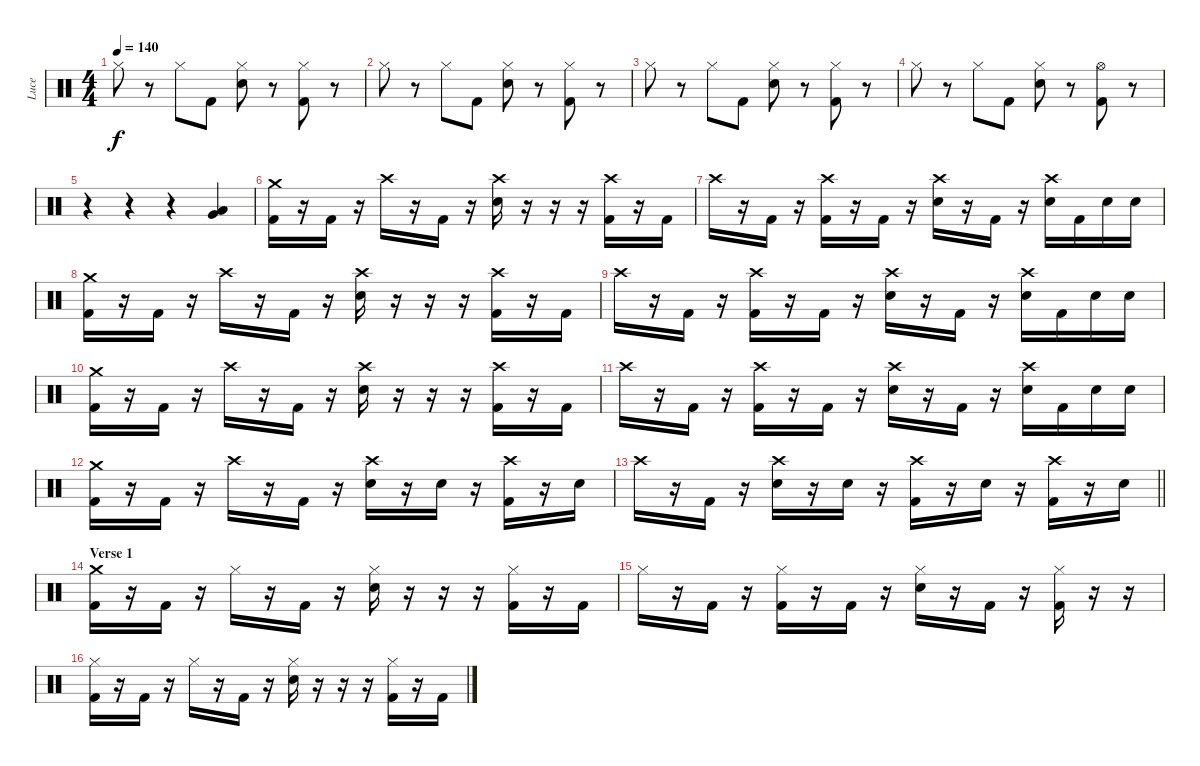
\track ("Luce" "Luce") {instrument percussion}
\staff {score}
\articulation defaults
\ts (4 4)
\tempo 140
\clef neutral
\ks c "Hi-Hat (closed)".8{dy f}
r.8 "Hi-Hat (closed)".8 "Kick (hit) 2".8 ("Hi-Hat (closed)" "Hand Clap (hit)").8 r.8 ("Hi-Hat (closed)" "Kick (hit) 2").8 r.8 |
"Hi-Hat (closed)".8 r.8 "Hi-Hat (closed)".8 "Kick (hit) 2".8 ("Hi-Hat (closed)" "Hand Clap (hit)").8 r.8 ("Hi-Hat (closed)" "Kick (hit) 2").8 r.8 |
"Hi-Hat (closed)".8 r.8 "Hi-Hat (closed)".8 "Kick (hit) 2".8 ("Hi-Hat (closed)" "Hand Clap (hit)").8 r.8 ("Hi-Hat (closed)" "Kick (hit) 2").8 r.8 |
"Hi-Hat (closed)".8 r.8 "Hi-Hat (closed)".8 "Kick (hit) 2".8 ("Hi-Hat (closed)" "Hand Clap (hit)").8 r.8 ("Hi-Hat (open)" "Kick (hit) 2").8 r.8 |
r.4 r.4 r.4 ("Very Low Tom (hit)" "Low Tom (hit)").4 |
("Crash medium (hit)" "Kick (hit) 2").16 r.16 "Kick (hit) 2".16 r.16 "Crash high (hit)".16 r.16 "Kick (hit) 2".16 r.16 ("Crash high (hit)" "Electric Snare (hit)").16 r.16 r.16 r.16 ("Crash high (hit)" "Kick (hit) 2").16 r.16 "Kick (hit) 2".16 |
"Crash high (hit)".16 r.16 "Kick (hit) 2".16 r.16 ("Crash high (hit)" "Kick (hit) 2").16 r.16 "Kick (hit) 2".16 r.16 ("Crash high (hit)" "Electric Snare (hit)").16 r.16 "Kick (hit) 2".16 r.16 ("Crash high (hit)" "Electric Snare (hit)").16 "Kick (hit) 2".16 "Electric Snare (hit)".16 "Electric Snare (hit)".16 |
("Crash medium (hit)" "Kick (hit) 2").16 r.16 "Kick (hit) 2".16 r.16 "Crash high (hit)".16 r.16 "Kick (hit) 2".16 r.16 ("Crash high (hit)" "Electric Snare (hit)").16 r.16 r.16 r.16 ("Crash high (hit)" "Kick (hit) 2").16 r.16 "Kick (hit) 2".16 |
"Crash high (hit)".16 r.16 "Kick (hit) 2".16 r.16 ("Crash high (hit)" "Kick (hit) 2").16 r.16 "Kick (hit) 2".16 r.16 ("Crash high (hit)" "Electric Snare (hit)").16 r.16 "Kick (hit) 2".16 r.16 ("Crash high (hit)" "Electric Snare (hit)").16 "Kick (hit) 2".16 "Electric Snare (hit)".16 "Electric Snare (hit)".16 |
("Crash medium (hit)" "Kick (hit) 2").16 r.16 "Kick (hit) 2".16 r.16 "Crash high (hit)".16 r.16 "Kick (hit) 2".16 r.16 ("Crash high (hit)" "Electric Snare (hit)").16 r.16 r.16 r.16 ("Crash high (hit)" "Kick (hit) 2").16 r.16 "Kick (hit) 2".16 |
"Crash high (hit)".16 r.16 "Kick (hit) 2".16 r.16 ("Crash high (hit)" "Kick (hit) 2").16 r.16 "Kick (hit) 2".16 r.16 ("Crash high (hit)" "Electric Snare (hit)").16 r.16 "Kick (hit) 2".16 r.16 ("Crash high (hit)" "Electric Snare (hit)").16 "Kick (hit) 2".16 "Electric Snare (hit)".16 "Electric Snare (hit)".16 |
("Crash medium (hit)" "Kick (hit) 2").16 r.16 "Kick (hit) 2".16 r.16 "Crash high (hit)".16 r.16 "Kick (hit) 2".16 r.16 ("Crash high (hit)" "Electric Snare (hit)").16 r.16 "Electric Snare (hit)".16 r.16 ("Crash high (hit)" "Kick (hit) 2").16 r.16 "Electric Snare (hit)".16 |
\barLineRight lightlight "Crash high (hit)".16
r.16 "Kick (hit) 2".16 r.16 ("Crash high (hit)" "Electric Snare (hit)").16 r.16 "Electric Snare (hit)".16 r.16 ("Crash high (hit)" "Kick (hit) 2").16 r.16 "Electric Snare (hit)".16 r.16 ("Crash high (hit)" "Kick (hit) 2").16 r.16 "Electric Snare (hit)".16 |
\section ("" "Verse 1")
("Crash medium (hit)" "Kick (hit) 2").16 r.16 "Kick (hit) 2".16 r.16 "Hi-Hat (closed)".16 r.16 "Kick (hit) 2".16 r.16 ("Hi-Hat (closed)" "Electric Snare (hit)").16 r.16 r.16 r.16 ("Hi-Hat (closed)" "Kick (hit) 2").16 r.16 "Kick (hit) 2".16 |
"Hi-Hat (closed)".16 r.16 "Kick (hit) 2".16 r.16 ("Hi-Hat (closed)" "Kick (hit) 2").16 r.16 "Kick (hit) 2".16 r.16 ("Hi-Hat (closed)" "Electric Snare (hit)").16 r.16 "Kick (hit) 2".16 r.16 ("Hi-Hat (closed)" "Kick (hit) 2").16 r.16 r.16 |
("Hi-Hat (closed)" "Kick (hit) 2").16 r.16 "Kick (hit) 2".16 r.16 "Hi-Hat (closed)".16 r.16 "Kick (hit) 2".16 r.16 ("Hi-Hat (closed)" "Electric Snare (hit)").16 r.16 r.16 r.16 ("Hi-Hat (closed)" "Kick (hit) 2").16 r.16 "Kick (hit) 2".16
